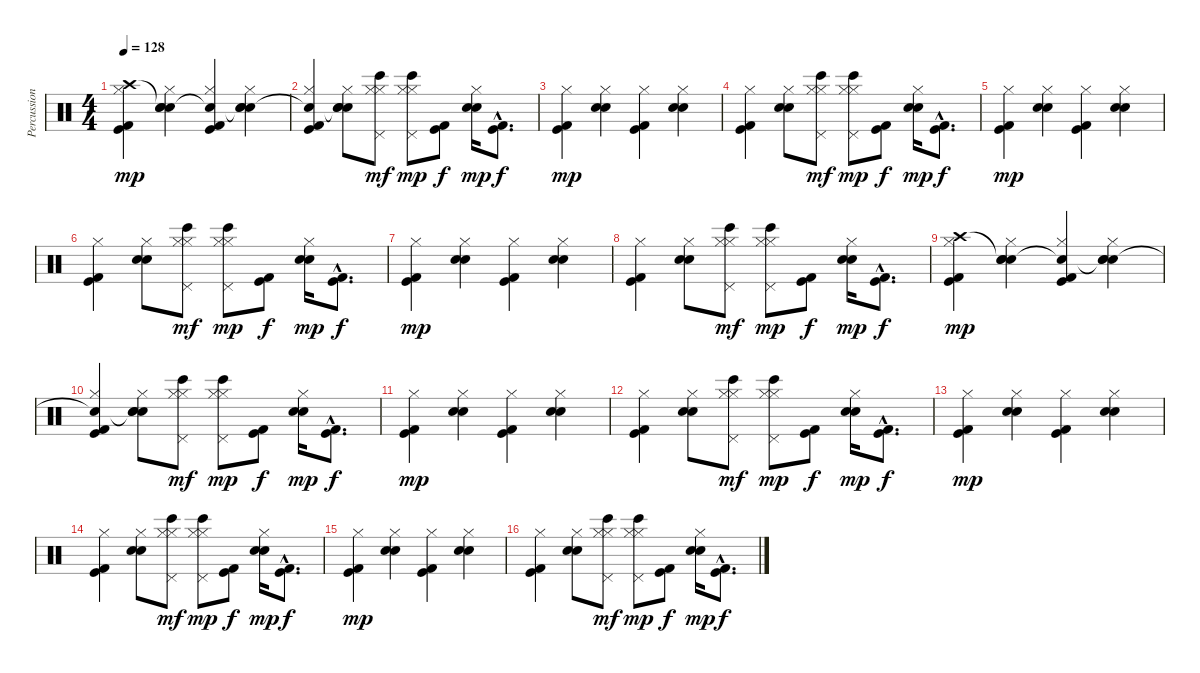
\track ("Percussion" "Percussion") {instrument percussion}
\staff {score}
\articulation defaults
\ts (4 4)
\tempo 128
\clef neutral
\ks c
("Kick (hit) 2" "Kick (hit)" "Crash high (hit)" "Hi-Hat (closed)").4{dy mp} ("Electric Snare (hit)" "Snare (hit) 2" "Snare (hit)"{t} "Hi-Hat (closed)").4 ("Kick (hit) 2" "Kick (hit)" "Snare (hit)"{t} "Hi-Hat (closed)").4 ("Electric Snare (hit)" "Snare (hit) 2" "Snare (hit)"{t} "Hi-Hat (closed)").4 |
("Kick (hit) 2" "Kick (hit)" "Snare (hit)"{t} "Hi-Hat (closed)").4 ("Electric Snare (hit)" "Snare (hit) 2" "Snare (hit)"{t} "Hi-Hat (closed)").8 ("Pedal Hi-Hat (hit)" "Hi-Hat (closed)" "Bongo High (hit)" "Hi-Hat (closed)").8{dy mf} ("Pedal Hi-Hat (hit)" "Hi-Hat (closed)" "Bongo High (hit)" "Hi-Hat (closed)").8{dy mp} ("Kick (hit) 2" "Kick (hit)").8{dy f} ("Electric Snare (hit)" "Snare (hit) 2" "Hi-Hat (closed)").16{dy mp} ("Kick (hit) 2"{hac} "Kick (hit)"{hac}).8{d dy f} |
("Kick (hit) 2" "Kick (hit)" "Hi-Hat (closed)").4{dy mp} ("Electric Snare (hit)" "Snare (hit) 2" "Hi-Hat (closed)").4 ("Kick (hit) 2" "Kick (hit)" "Hi-Hat (closed)").4 ("Electric Snare (hit)" "Snare (hit) 2" "Hi-Hat (closed)").4 |
("Kick (hit) 2" "Kick (hit)" "Hi-Hat (closed)").4 ("Electric Snare (hit)" "Snare (hit) 2" "Hi-Hat (closed)").8 ("Pedal Hi-Hat (hit)" "Hi-Hat (closed)" "Bongo High (hit)" "Hi-Hat (closed)").8{dy mf} ("Pedal Hi-Hat (hit)" "Hi-Hat (closed)" "Bongo High (hit)" "Hi-Hat (closed)").8{dy mp} ("Kick (hit) 2" "Kick (hit)").8{dy f} ("Electric Snare (hit)" "Snare (hit) 2" "Hi-Hat (closed)").16{dy mp} ("Kick (hit) 2"{hac} "Kick (hit)"{hac}).8{d dy f} |
("Kick (hit) 2" "Kick (hit)" "Hi-Hat (closed)").4{dy mp} ("Electric Snare (hit)" "Snare (hit) 2" "Hi-Hat (closed)").4 ("Kick (hit) 2" "Kick (hit)" "Hi-Hat (closed)").4 ("Electric Snare (hit)" "Snare (hit) 2" "Hi-Hat (closed)").4 |
("Kick (hit) 2" "Kick (hit)" "Hi-Hat (closed)").4 ("Electric Snare (hit)" "Snare (hit) 2" "Hi-Hat (closed)").8 ("Pedal Hi-Hat (hit)" "Hi-Hat (closed)" "Bongo High (hit)" "Hi-Hat (closed)").8{dy mf} ("Pedal Hi-Hat (hit)" "Hi-Hat (closed)" "Bongo High (hit)" "Hi-Hat (closed)").8{dy mp} ("Kick (hit) 2" "Kick (hit)").8{dy f} ("Electric Snare (hit)" "Snare (hit) 2" "Hi-Hat (closed)").16{dy mp} ("Kick (hit) 2"{hac} "Kick (hit)"{hac}).8{d dy f} |
("Kick (hit) 2" "Kick (hit)" "Hi-Hat (closed)").4{dy mp} ("Electric Snare (hit)" "Snare (hit) 2" "Hi-Hat (closed)").4 ("Kick (hit) 2" "Kick (hit)" "Hi-Hat (closed)").4 ("Electric Snare (hit)" "Snare (hit) 2" "Hi-Hat (closed)").4 |
("Kick (hit) 2" "Kick (hit)" "Hi-Hat (closed)").4 ("Electric Snare (hit)" "Snare (hit) 2" "Hi-Hat (closed)").8 ("Pedal Hi-Hat (hit)" "Hi-Hat (closed)" "Bongo High (hit)" "Hi-Hat (closed)").8{dy mf} ("Pedal Hi-Hat (hit)" "Hi-Hat (closed)" "Bongo High (hit)" "Hi-Hat (closed)").8{dy mp} ("Kick (hit) 2" "Kick (hit)").8{dy f} ("Electric Snare (hit)" "Snare (hit) 2" "Hi-Hat (closed)").16{dy mp} ("Kick (hit) 2"{hac} "Kick (hit)"{hac}).8{d dy f} |
("Kick (hit) 2" "Kick (hit)" "Crash high (hit)" "Hi-Hat (closed)").4{dy mp} ("Electric Snare (hit)" "Snare (hit) 2" "Snare (hit)"{t} "Hi-Hat (closed)").4 ("Kick (hit) 2" "Kick (hit)" "Snare (hit)"{t} "Hi-Hat (closed)").4 ("Electric Snare (hit)" "Snare (hit) 2" "Snare (hit)"{t} "Hi-Hat (closed)").4 |
("Kick (hit) 2" "Kick (hit)" "Snare (hit)"{t} "Hi-Hat (closed)").4 ("Electric Snare (hit)" "Snare (hit) 2" "Snare (hit)"{t} "Hi-Hat (closed)").8 ("Pedal Hi-Hat (hit)" "Hi-Hat (closed)" "Bongo High (hit)" "Hi-Hat (closed)").8{dy mf} ("Pedal Hi-Hat (hit)" "Hi-Hat (closed)" "Bongo High (hit)" "Hi-Hat (closed)").8{dy mp} ("Kick (hit) 2" "Kick (hit)").8{dy f} ("Electric Snare (hit)" "Snare (hit) 2" "Hi-Hat (closed)").16{dy mp} ("Kick (hit) 2"{hac} "Kick (hit)"{hac}).8{d dy f} |
("Kick (hit) 2" "Kick (hit)" "Hi-Hat (closed)").4{dy mp} ("Electric Snare (hit)" "Snare (hit) 2" "Hi-Hat (closed)").4 ("Kick (hit) 2" "Kick (hit)" "Hi-Hat (closed)").4 ("Electric Snare (hit)" "Snare (hit) 2" "Hi-Hat (closed)").4 |
("Kick (hit) 2" "Kick (hit)" "Hi-Hat (closed)").4 ("Electric Snare (hit)" "Snare (hit) 2" "Hi-Hat (closed)").8 ("Pedal Hi-Hat (hit)" "Hi-Hat (closed)" "Bongo High (hit)" "Hi-Hat (closed)").8{dy mf} ("Pedal Hi-Hat (hit)" "Hi-Hat (closed)" "Bongo High (hit)" "Hi-Hat (closed)").8{dy mp} ("Kick (hit) 2" "Kick (hit)").8{dy f} ("Electric Snare (hit)" "Snare (hit) 2" "Hi-Hat (closed)").16{dy mp} ("Kick (hit) 2"{hac} "Kick (hit)"{hac}).8{d dy f} |
("Kick (hit) 2" "Kick (hit)" "Hi-Hat (closed)").4{dy mp} ("Electric Snare (hit)" "Snare (hit) 2" "Hi-Hat (closed)").4 ("Kick (hit) 2" "Kick (hit)" "Hi-Hat (closed)").4 ("Electric Snare (hit)" "Snare (hit) 2" "Hi-Hat (closed)").4 |
("Kick (hit) 2" "Kick (hit)" "Hi-Hat (closed)").4 ("Electric Snare (hit)" "Snare (hit) 2" "Hi-Hat (closed)").8 ("Pedal Hi-Hat (hit)" "Hi-Hat (closed)" "Bongo High (hit)" "Hi-Hat (closed)").8{dy mf} ("Pedal Hi-Hat (hit)" "Hi-Hat (closed)" "Bongo High (hit)" "Hi-Hat (closed)").8{dy mp} ("Kick (hit) 2" "Kick (hit)").8{dy f} ("Electric Snare (hit)" "Snare (hit) 2" "Hi-Hat (closed)").16{dy mp} ("Kick (hit) 2"{hac} "Kick (hit)"{hac}).8{d dy f} |
("Kick (hit) 2" "Kick (hit)" "Hi-Hat (closed)").4{dy mp} ("Electric Snare (hit)" "Snare (hit) 2" "Hi-Hat (closed)").4 ("Kick (hit) 2" "Kick (hit)" "Hi-Hat (closed)").4 ("Electric Snare (hit)" "Snare (hit) 2" "Hi-Hat (closed)").4 |
("Kick (hit) 2" "Kick (hit)" "Hi-Hat (closed)").4 ("Electric Snare (hit)" "Snare (hit) 2" "Hi-Hat (closed)").8 ("Pedal Hi-Hat (hit)" "Hi-Hat (closed)" "Bongo High (hit)" "Hi-Hat (closed)").8{dy mf} ("Pedal Hi-Hat (hit)" "Hi-Hat (closed)" "Bongo High (hit)" "Hi-Hat (closed)").8{dy mp} ("Kick (hit) 2" "Kick (hit)").8{dy f} ("Electric Snare (hit)" "Snare (hit) 2" "Hi-Hat (closed)").16{dy mp} ("Kick (hit) 2"{hac} "Kick (hit)"{hac}).8{d dy f}
